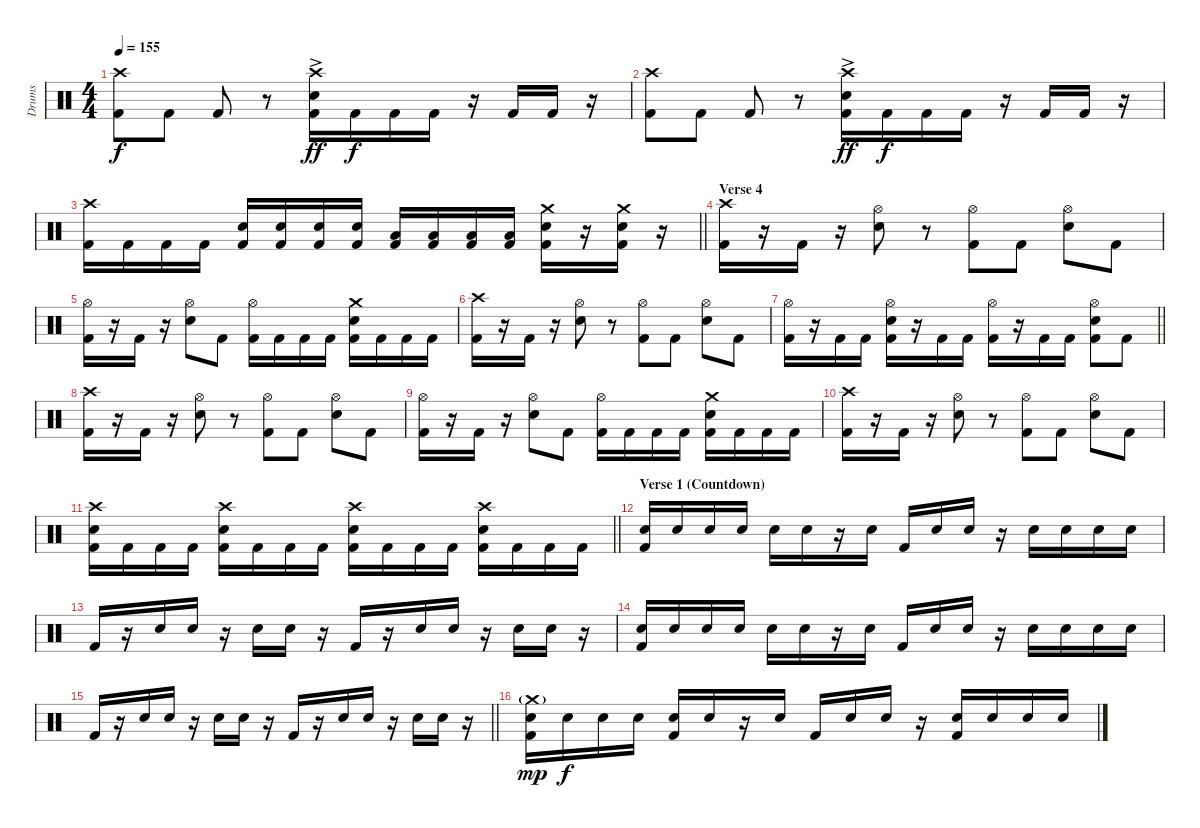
\track ("Drums" "Drums") {instrument percussion}
\staff {score}
\articulation defaults
\ts (4 4)
\tempo 155
\clef neutral
\ks c
("Crash high (hit)" "Kick (hit) 2").8{dy f} "Kick (hit) 2".8 "Kick (hit) 2".8 r.8 ("Crash high (hit)" "Snare (hit) 2"{ac} "Kick (hit) 2").16{dy ff} "Kick (hit) 2".16{dy f} "Kick (hit) 2".16 "Kick (hit) 2".16 r.16 "Kick (hit) 2".16 "Kick (hit) 2".16 r.16 |
("Crash high (hit)" "Kick (hit) 2").8 "Kick (hit) 2".8 "Kick (hit) 2".8 r.8 ("Crash high (hit)" "Snare (hit) 2"{ac} "Kick (hit) 2").16{dy ff} "Kick (hit) 2".16{dy f} "Kick (hit) 2".16 "Kick (hit) 2".16 r.16 "Kick (hit) 2".16 "Kick (hit) 2".16 r.16 |
\barLineRight lightlight
("Crash high (hit)" "Kick (hit) 2").16 "Kick (hit) 2".16 "Kick (hit) 2".16 "Kick (hit) 2".16 ("Snare (hit) 2" "Kick (hit) 2").16 ("Snare (hit) 2" "Kick (hit) 2").16 ("Snare (hit) 2" "Kick (hit) 2").16 ("Snare (hit) 2" "Kick (hit) 2").16 ("Low Tom (hit)" "Kick (hit) 2").16 ("Low Tom (hit)" "Kick (hit) 2").16 ("Low Tom (hit)" "Kick (hit) 2").16 ("Low Tom (hit)" "Kick (hit) 2").16 ("Crash medium (hit)" "Snare (hit) 2" "Kick (hit) 2").16 r.16 ("Crash medium (hit)" "Snare (hit) 2" "Kick (hit) 2").16 r.16 |
\section ("" "Verse 4")
("Crash high (hit)" "Kick (hit) 2").16 r.16 "Kick (hit) 2".16 r.16 ("Hi-Hat (open)" "Snare (hit) 2").8 r.8 ("Hi-Hat (open)" "Kick (hit) 2").8 "Kick (hit) 2".8 ("Hi-Hat (open)" "Snare (hit) 2").8 "Kick (hit) 2".8 |
("Hi-Hat (open)" "Kick (hit) 2").16 r.16 "Kick (hit) 2".16 r.16 ("Hi-Hat (open)" "Snare (hit) 2").8 "Kick (hit) 2".8 ("Hi-Hat (open)" "Kick (hit) 2").16 "Kick (hit) 2".16 "Kick (hit) 2".16 "Kick (hit) 2".16 ("Crash medium (hit)" "Snare (hit) 2" "Kick (hit) 2").16 "Kick (hit) 2".16 "Kick (hit) 2".16 "Kick (hit) 2".16 |
("Crash high (hit)" "Kick (hit) 2").16 r.16 "Kick (hit) 2".16 r.16 ("Hi-Hat (open)" "Snare (hit) 2").8 r.8 ("Hi-Hat (open)" "Kick (hit) 2").8 "Kick (hit) 2".8 ("Hi-Hat (open)" "Snare (hit) 2").8 "Kick (hit) 2".8 |
\barLineRight lightlight
("Hi-Hat (open)" "Kick (hit) 2").16 r.16 "Kick (hit) 2".16 "Kick (hit) 2".16 ("Hi-Hat (open)" "Snare (hit) 2" "Kick (hit) 2").16 r.16 "Kick (hit) 2".16 "Kick (hit) 2".16 ("Hi-Hat (open)" "Kick (hit) 2").16 r.16 "Kick (hit) 2".16 "Kick (hit) 2".16 ("Hi-Hat (open)" "Snare (hit) 2" "Kick (hit) 2").8 "Kick (hit) 2".8 |
("Crash high (hit)" "Kick (hit) 2").16 r.16 "Kick (hit) 2".16 r.16 ("Hi-Hat (open)" "Snare (hit) 2").8 r.8 ("Hi-Hat (open)" "Kick (hit) 2").8 "Kick (hit) 2".8 ("Hi-Hat (open)" "Snare (hit) 2").8 "Kick (hit) 2".8 |
("Hi-Hat (open)" "Kick (hit) 2").16 r.16 "Kick (hit) 2".16 r.16 ("Hi-Hat (open)" "Snare (hit) 2").8 "Kick (hit) 2".8 ("Hi-Hat (open)" "Kick (hit) 2").16 "Kick (hit) 2".16 "Kick (hit) 2".16 "Kick (hit) 2".16 ("Crash medium (hit)" "Snare (hit) 2" "Kick (hit) 2").16 "Kick (hit) 2".16 "Kick (hit) 2".16 "Kick (hit) 2".16 |
("Crash high (hit)" "Kick (hit) 2").16 r.16 "Kick (hit) 2".16 r.16 ("Hi-Hat (open)" "Snare (hit) 2").8 r.8 ("Hi-Hat (open)" "Kick (hit) 2").8 "Kick (hit) 2".8 ("Hi-Hat (open)" "Snare (hit) 2").8 "Kick (hit) 2".8 |
\barLineRight lightlight
("Crash high (hit)" "Snare (hit) 2" "Kick (hit) 2").16 "Kick (hit) 2".16 "Kick (hit) 2".16 "Kick (hit) 2".16 ("Crash high (hit)" "Snare (hit) 2" "Kick (hit) 2").16 "Kick (hit) 2".16 "Kick (hit) 2".16 "Kick (hit) 2".16 ("Crash high (hit)" "Snare (hit) 2" "Kick (hit) 2").16 "Kick (hit) 2".16 "Kick (hit) 2".16 "Kick (hit) 2".16 ("Crash high (hit)" "Snare (hit) 2" "Kick (hit) 2").16 "Kick (hit) 2".16 "Kick (hit) 2".16 "Kick (hit) 2".16 |
\section ("" "Verse 1 (Countdown)")
("Snare (hit) 2" "Kick (hit) 2").16 "Snare (hit) 2".16 "Snare (hit) 2".16 "Snare (hit) 2".16 "Snare (hit) 2".16 "Snare (hit) 2".16 r.16 "Snare (hit) 2".16 "Kick (hit) 2".16 "Snare (hit) 2".16 "Snare (hit) 2".16 r.16 "Snare (hit) 2".16 "Snare (hit) 2".16 "Snare (hit) 2".16 "Snare (hit) 2".16 |
"Kick (hit) 2".16 r.16 "Snare (hit) 2".16 "Snare (hit) 2".16 r.16 "Snare (hit) 2".16 "Snare (hit) 2".16 r.16 "Kick (hit) 2".16 r.16 "Snare (hit) 2".16 "Snare (hit) 2".16 r.16 "Snare (hit) 2".16 "Snare (hit) 2".16 r.16 |
("Snare (hit) 2" "Kick (hit) 2").16 "Snare (hit) 2".16 "Snare (hit) 2".16 "Snare (hit) 2".16 "Snare (hit) 2".16 "Snare (hit) 2".16 r.16 "Snare (hit) 2".16 "Kick (hit) 2".16 "Snare (hit) 2".16 "Snare (hit) 2".16 r.16 "Snare (hit) 2".16 "Snare (hit) 2".16 "Snare (hit) 2".16 "Snare (hit) 2".16 |
\barLineRight lightlight "Kick (hit) 2".16
r.16 "Snare (hit) 2".16 "Snare (hit) 2".16 r.16 "Snare (hit) 2".16 "Snare (hit) 2".16 r.16 "Kick (hit) 2".16 r.16 "Snare (hit) 2".16 "Snare (hit) 2".16 r.16 "Snare (hit) 2".16 "Snare (hit) 2".16 r.16 |
("Crash medium (hit)"{g} "Snare (hit) 2" "Kick (hit) 2").16{dy mp} "Snare (hit) 2".16{dy f} "Snare (hit) 2".16 "Snare (hit) 2".16 ("Snare (hit) 2" "Kick (hit) 2").16 "Snare (hit) 2".16 r.16 "Snare (hit) 2".16 "Kick (hit) 2".16 "Snare (hit) 2".16 "Snare (hit) 2".16 r.16 ("Snare (hit) 2" "Kick (hit) 2").16 "Snare (hit) 2".16 "Snare (hit) 2".16 "Snare (hit) 2".16
